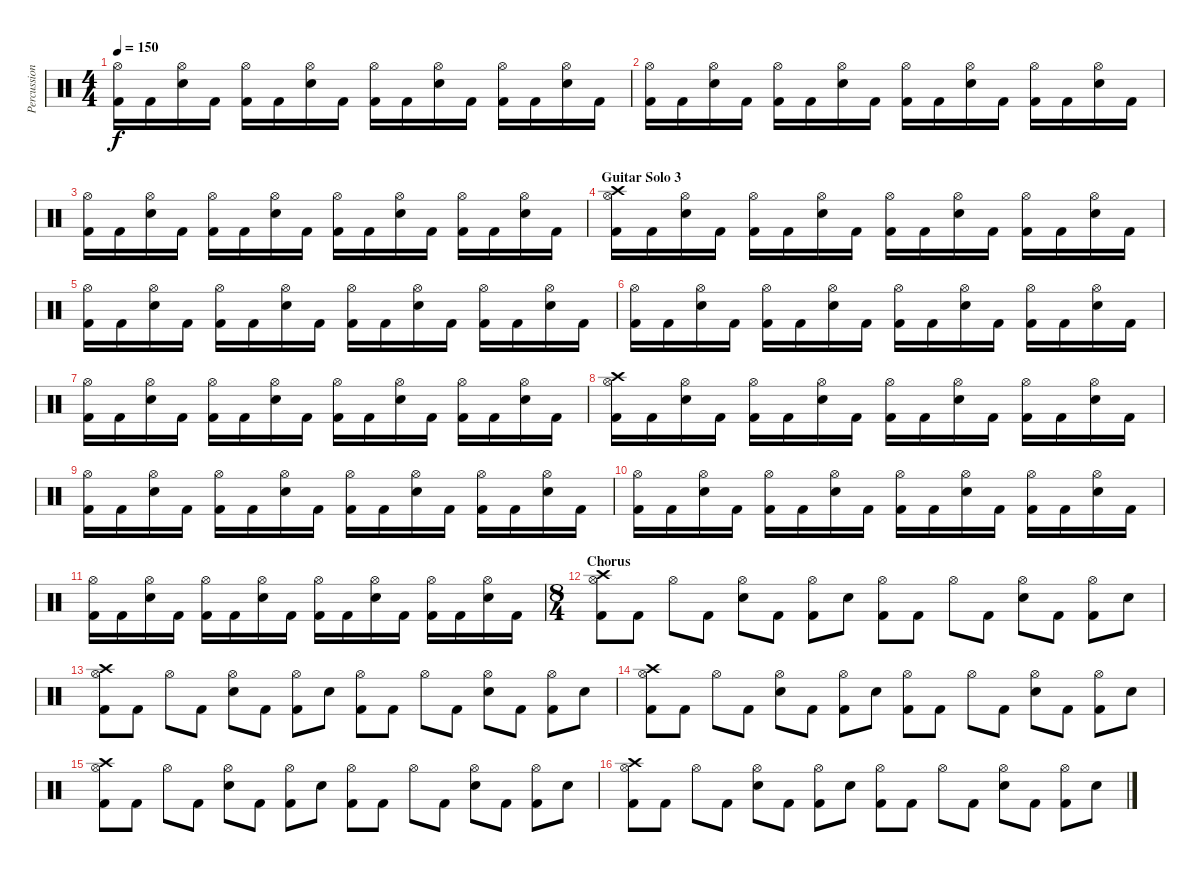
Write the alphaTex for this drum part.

\track ("Percussions" "Percussion") {instrument percussion}
\staff {score}
\articulation defaults
\ts (4 4)
\tempo 150
\clef neutral
\ks c
("Hi-Hat (open)" "Kick (hit) 2").16{dy f} "Kick (hit) 2".16 ("Hi-Hat (open)" "Electric Snare (hit)").16 "Kick (hit) 2".16 ("Hi-Hat (open)" "Kick (hit) 2").16 "Kick (hit) 2".16 ("Hi-Hat (open)" "Electric Snare (hit)").16 "Kick (hit) 2".16 ("Hi-Hat (open)" "Kick (hit) 2").16 "Kick (hit) 2".16 ("Hi-Hat (open)" "Electric Snare (hit)").16 "Kick (hit) 2".16 ("Hi-Hat (open)" "Kick (hit) 2").16 "Kick (hit) 2".16 ("Hi-Hat (open)" "Electric Snare (hit)").16 "Kick (hit) 2".16 |
("Hi-Hat (open)" "Kick (hit) 2").16 "Kick (hit) 2".16 ("Hi-Hat (open)" "Electric Snare (hit)").16 "Kick (hit) 2".16 ("Hi-Hat (open)" "Kick (hit) 2").16 "Kick (hit) 2".16 ("Hi-Hat (open)" "Electric Snare (hit)").16 "Kick (hit) 2".16 ("Hi-Hat (open)" "Kick (hit) 2").16 "Kick (hit) 2".16 ("Hi-Hat (open)" "Electric Snare (hit)").16 "Kick (hit) 2".16 ("Hi-Hat (open)" "Kick (hit) 2").16 "Kick (hit) 2".16 ("Hi-Hat (open)" "Electric Snare (hit)").16 "Kick (hit) 2".16 |
("Hi-Hat (open)" "Kick (hit) 2").16 "Kick (hit) 2".16 ("Hi-Hat (open)" "Electric Snare (hit)").16 "Kick (hit) 2".16 ("Hi-Hat (open)" "Kick (hit) 2").16 "Kick (hit) 2".16 ("Hi-Hat (open)" "Electric Snare (hit)").16 "Kick (hit) 2".16 ("Hi-Hat (open)" "Kick (hit) 2").16 "Kick (hit) 2".16 ("Hi-Hat (open)" "Electric Snare (hit)").16 "Kick (hit) 2".16 ("Hi-Hat (open)" "Kick (hit) 2").16 "Kick (hit) 2".16 ("Hi-Hat (open)" "Electric Snare (hit)").16 "Kick (hit) 2".16 |
\section ("" "Guitar Solo 3")
("Crash high (hit)" "Hi-Hat (open)" "Kick (hit) 2").16 "Kick (hit) 2".16 ("Hi-Hat (open)" "Electric Snare (hit)").16 "Kick (hit) 2".16 ("Hi-Hat (open)" "Kick (hit) 2").16 "Kick (hit) 2".16 ("Hi-Hat (open)" "Electric Snare (hit)").16 "Kick (hit) 2".16 ("Hi-Hat (open)" "Kick (hit) 2").16 "Kick (hit) 2".16 ("Hi-Hat (open)" "Electric Snare (hit)").16 "Kick (hit) 2".16 ("Hi-Hat (open)" "Kick (hit) 2").16 "Kick (hit) 2".16 ("Hi-Hat (open)" "Electric Snare (hit)").16 "Kick (hit) 2".16 |
("Hi-Hat (open)" "Kick (hit) 2").16 "Kick (hit) 2".16 ("Hi-Hat (open)" "Electric Snare (hit)").16 "Kick (hit) 2".16 ("Hi-Hat (open)" "Kick (hit) 2").16 "Kick (hit) 2".16 ("Hi-Hat (open)" "Electric Snare (hit)").16 "Kick (hit) 2".16 ("Hi-Hat (open)" "Kick (hit) 2").16 "Kick (hit) 2".16 ("Hi-Hat (open)" "Electric Snare (hit)").16 "Kick (hit) 2".16 ("Hi-Hat (open)" "Kick (hit) 2").16 "Kick (hit) 2".16 ("Hi-Hat (open)" "Electric Snare (hit)").16 "Kick (hit) 2".16 |
("Hi-Hat (open)" "Kick (hit) 2").16 "Kick (hit) 2".16 ("Hi-Hat (open)" "Electric Snare (hit)").16 "Kick (hit) 2".16 ("Hi-Hat (open)" "Kick (hit) 2").16 "Kick (hit) 2".16 ("Hi-Hat (open)" "Electric Snare (hit)").16 "Kick (hit) 2".16 ("Hi-Hat (open)" "Kick (hit) 2").16 "Kick (hit) 2".16 ("Hi-Hat (open)" "Electric Snare (hit)").16 "Kick (hit) 2".16 ("Hi-Hat (open)" "Kick (hit) 2").16 "Kick (hit) 2".16 ("Hi-Hat (open)" "Electric Snare (hit)").16 "Kick (hit) 2".16 |
("Hi-Hat (open)" "Kick (hit) 2").16 "Kick (hit) 2".16 ("Hi-Hat (open)" "Electric Snare (hit)").16 "Kick (hit) 2".16 ("Hi-Hat (open)" "Kick (hit) 2").16 "Kick (hit) 2".16 ("Hi-Hat (open)" "Electric Snare (hit)").16 "Kick (hit) 2".16 ("Hi-Hat (open)" "Kick (hit) 2").16 "Kick (hit) 2".16 ("Hi-Hat (open)" "Electric Snare (hit)").16 "Kick (hit) 2".16 ("Hi-Hat (open)" "Kick (hit) 2").16 "Kick (hit) 2".16 ("Hi-Hat (open)" "Electric Snare (hit)").16 "Kick (hit) 2".16 |
("Crash high (hit)" "Hi-Hat (open)" "Kick (hit) 2").16 "Kick (hit) 2".16 ("Hi-Hat (open)" "Electric Snare (hit)").16 "Kick (hit) 2".16 ("Hi-Hat (open)" "Kick (hit) 2").16 "Kick (hit) 2".16 ("Hi-Hat (open)" "Electric Snare (hit)").16 "Kick (hit) 2".16 ("Hi-Hat (open)" "Kick (hit) 2").16 "Kick (hit) 2".16 ("Hi-Hat (open)" "Electric Snare (hit)").16 "Kick (hit) 2".16 ("Hi-Hat (open)" "Kick (hit) 2").16 "Kick (hit) 2".16 ("Hi-Hat (open)" "Electric Snare (hit)").16 "Kick (hit) 2".16 |
("Hi-Hat (open)" "Kick (hit) 2").16 "Kick (hit) 2".16 ("Hi-Hat (open)" "Electric Snare (hit)").16 "Kick (hit) 2".16 ("Hi-Hat (open)" "Kick (hit) 2").16 "Kick (hit) 2".16 ("Hi-Hat (open)" "Electric Snare (hit)").16 "Kick (hit) 2".16 ("Hi-Hat (open)" "Kick (hit) 2").16 "Kick (hit) 2".16 ("Hi-Hat (open)" "Electric Snare (hit)").16 "Kick (hit) 2".16 ("Hi-Hat (open)" "Kick (hit) 2").16 "Kick (hit) 2".16 ("Hi-Hat (open)" "Electric Snare (hit)").16 "Kick (hit) 2".16 |
("Hi-Hat (open)" "Kick (hit) 2").16 "Kick (hit) 2".16 ("Hi-Hat (open)" "Electric Snare (hit)").16 "Kick (hit) 2".16 ("Hi-Hat (open)" "Kick (hit) 2").16 "Kick (hit) 2".16 ("Hi-Hat (open)" "Electric Snare (hit)").16 "Kick (hit) 2".16 ("Hi-Hat (open)" "Kick (hit) 2").16 "Kick (hit) 2".16 ("Hi-Hat (open)" "Electric Snare (hit)").16 "Kick (hit) 2".16 ("Hi-Hat (open)" "Kick (hit) 2").16 "Kick (hit) 2".16 ("Hi-Hat (open)" "Electric Snare (hit)").16 "Kick (hit) 2".16 |
("Hi-Hat (open)" "Kick (hit) 2").16 "Kick (hit) 2".16 ("Hi-Hat (open)" "Electric Snare (hit)").16 "Kick (hit) 2".16 ("Hi-Hat (open)" "Kick (hit) 2").16 "Kick (hit) 2".16 ("Hi-Hat (open)" "Electric Snare (hit)").16 "Kick (hit) 2".16 ("Hi-Hat (open)" "Kick (hit) 2").16 "Kick (hit) 2".16 ("Hi-Hat (open)" "Electric Snare (hit)").16 "Kick (hit) 2".16 ("Hi-Hat (open)" "Kick (hit) 2").16 "Kick (hit) 2".16 ("Hi-Hat (open)" "Electric Snare (hit)").16 "Kick (hit) 2".16 |
\ts (8 4)
\section ("" "Chorus")
("Crash high (hit)" "Hi-Hat (open)" "Kick (hit) 2").8 "Kick (hit) 2".8 "Hi-Hat (open)".8 "Kick (hit) 2".8 ("Hi-Hat (open)" "Electric Snare (hit)").8 "Kick (hit) 2".8 ("Hi-Hat (open)" "Kick (hit) 2").8 "Electric Snare (hit)".8 ("Hi-Hat (open)" "Kick (hit) 2").8 "Kick (hit) 2".8 "Hi-Hat (open)".8 "Kick (hit) 2".8 ("Hi-Hat (open)" "Electric Snare (hit)").8 "Kick (hit) 2".8 ("Hi-Hat (open)" "Kick (hit) 2").8 "Electric Snare (hit)".8 |
("Crash high (hit)" "Hi-Hat (open)" "Kick (hit) 2").8 "Kick (hit) 2".8 "Hi-Hat (open)".8 "Kick (hit) 2".8 ("Hi-Hat (open)" "Electric Snare (hit)").8 "Kick (hit) 2".8 ("Hi-Hat (open)" "Kick (hit) 2").8 "Electric Snare (hit)".8 ("Hi-Hat (open)" "Kick (hit) 2").8 "Kick (hit) 2".8 "Hi-Hat (open)".8 "Kick (hit) 2".8 ("Hi-Hat (open)" "Electric Snare (hit)").8 "Kick (hit) 2".8 ("Hi-Hat (open)" "Kick (hit) 2").8 "Electric Snare (hit)".8 |
("Crash high (hit)" "Hi-Hat (open)" "Kick (hit) 2").8 "Kick (hit) 2".8 "Hi-Hat (open)".8 "Kick (hit) 2".8 ("Hi-Hat (open)" "Electric Snare (hit)").8 "Kick (hit) 2".8 ("Hi-Hat (open)" "Kick (hit) 2").8 "Electric Snare (hit)".8 ("Hi-Hat (open)" "Kick (hit) 2").8 "Kick (hit) 2".8 "Hi-Hat (open)".8 "Kick (hit) 2".8 ("Hi-Hat (open)" "Electric Snare (hit)").8 "Kick (hit) 2".8 ("Hi-Hat (open)" "Kick (hit) 2").8 "Electric Snare (hit)".8 |
("Crash high (hit)" "Hi-Hat (open)" "Kick (hit) 2").8 "Kick (hit) 2".8 "Hi-Hat (open)".8 "Kick (hit) 2".8 ("Hi-Hat (open)" "Electric Snare (hit)").8 "Kick (hit) 2".8 ("Hi-Hat (open)" "Kick (hit) 2").8 "Electric Snare (hit)".8 ("Hi-Hat (open)" "Kick (hit) 2").8 "Kick (hit) 2".8 "Hi-Hat (open)".8 "Kick (hit) 2".8 ("Hi-Hat (open)" "Electric Snare (hit)").8 "Kick (hit) 2".8 ("Hi-Hat (open)" "Kick (hit) 2").8 "Electric Snare (hit)".8 |
("Crash high (hit)" "Hi-Hat (open)" "Kick (hit) 2").8 "Kick (hit) 2".8 "Hi-Hat (open)".8 "Kick (hit) 2".8 ("Hi-Hat (open)" "Electric Snare (hit)").8 "Kick (hit) 2".8 ("Hi-Hat (open)" "Kick (hit) 2").8 "Electric Snare (hit)".8 ("Hi-Hat (open)" "Kick (hit) 2").8 "Kick (hit) 2".8 "Hi-Hat (open)".8 "Kick (hit) 2".8 ("Hi-Hat (open)" "Electric Snare (hit)").8 "Kick (hit) 2".8 ("Hi-Hat (open)" "Kick (hit) 2").8 "Electric Snare (hit)".8
